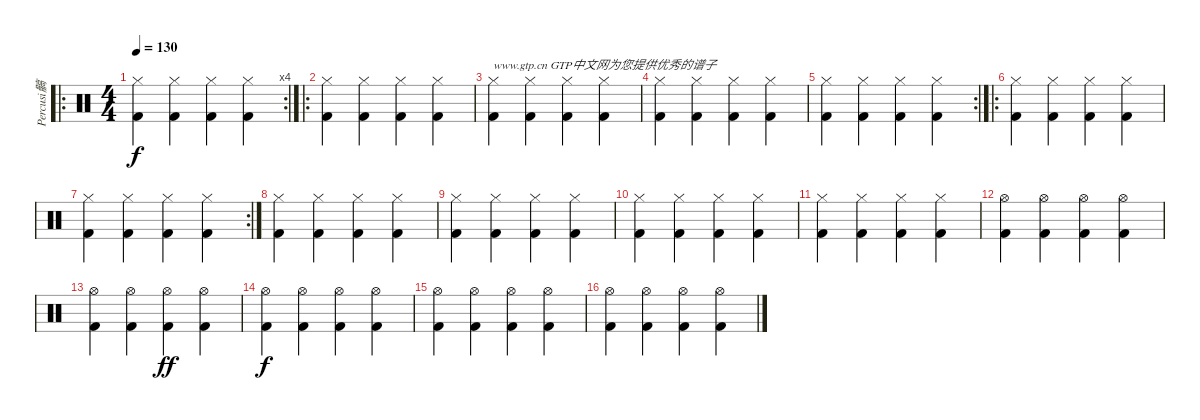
\track ("Percusi髇" "Percusi髇") {instrument percussion}
\staff {score}
\articulation defaults
\ro
\rc 4
\ts (4 4)
\tempo 130
\clef neutral
\ks c
("Hi-Hat (closed)" "Kick (hit) 2").4{dy f} ("Hi-Hat (closed)" "Kick (hit) 2").4 ("Hi-Hat (closed)" "Kick (hit) 2").4 ("Hi-Hat (closed)" "Kick (hit) 2").4 |
\ro
("Hi-Hat (closed)" "Kick (hit) 2").4 ("Hi-Hat (closed)" "Kick (hit) 2").4 ("Hi-Hat (closed)" "Kick (hit) 2").4 ("Hi-Hat (closed)" "Kick (hit) 2").4 |
("Hi-Hat (closed)" "Kick (hit) 2").4{txt "www.gtp.cn GTP中文网为您提供优秀的谱子"} ("Hi-Hat (closed)" "Kick (hit) 2").4 ("Hi-Hat (closed)" "Kick (hit) 2").4 ("Hi-Hat (closed)" "Kick (hit) 2").4 |
("Hi-Hat (closed)" "Kick (hit) 2").4 ("Hi-Hat (closed)" "Kick (hit) 2").4 ("Hi-Hat (closed)" "Kick (hit) 2").4 ("Hi-Hat (closed)" "Kick (hit) 2").4 |
\rc 2
("Hi-Hat (closed)" "Kick (hit) 2").4 ("Hi-Hat (closed)" "Kick (hit) 2").4 ("Hi-Hat (closed)" "Kick (hit) 2").4 ("Hi-Hat (closed)" "Kick (hit) 2").4 |
\ro
("Hi-Hat (closed)" "Kick (hit) 2").4 ("Hi-Hat (closed)" "Kick (hit) 2").4 ("Hi-Hat (closed)" "Kick (hit) 2").4 ("Hi-Hat (closed)" "Kick (hit) 2").4 |
\rc 2
("Hi-Hat (closed)" "Kick (hit) 2").4 ("Hi-Hat (closed)" "Kick (hit) 2").4 ("Hi-Hat (closed)" "Kick (hit) 2").4 ("Hi-Hat (closed)" "Kick (hit) 2").4 |
("Hi-Hat (closed)" "Kick (hit) 2").4 ("Hi-Hat (closed)" "Kick (hit) 2").4 ("Hi-Hat (closed)" "Kick (hit) 2").4 ("Hi-Hat (closed)" "Kick (hit) 2").4 |
("Hi-Hat (closed)" "Kick (hit) 2").4 ("Hi-Hat (closed)" "Kick (hit) 2").4 ("Hi-Hat (closed)" "Kick (hit) 2").4 ("Hi-Hat (closed)" "Kick (hit) 2").4 |
("Hi-Hat (closed)" "Kick (hit) 2").4 ("Hi-Hat (closed)" "Kick (hit) 2").4 ("Hi-Hat (closed)" "Kick (hit) 2").4 ("Hi-Hat (closed)" "Kick (hit) 2").4 |
("Hi-Hat (closed)" "Kick (hit) 2").4 ("Hi-Hat (closed)" "Kick (hit) 2").4 ("Hi-Hat (closed)" "Kick (hit) 2").4 ("Hi-Hat (closed)" "Kick (hit) 2").4 |
("Hi-Hat (open)" "Kick (hit) 2").4 ("Hi-Hat (open)" "Kick (hit) 2").4 ("Hi-Hat (open)" "Kick (hit) 2").4 ("Hi-Hat (open)" "Kick (hit) 2").4 |
("Hi-Hat (open)" "Kick (hit) 2").4 ("Hi-Hat (open)" "Kick (hit) 2").4 ("Hi-Hat (open)" "Kick (hit) 2").4{dy ff} ("Hi-Hat (open)" "Kick (hit) 2").4 |
("Hi-Hat (open)" "Kick (hit) 2").4{dy f} ("Hi-Hat (open)" "Kick (hit) 2").4 ("Hi-Hat (open)" "Kick (hit) 2").4 ("Hi-Hat (open)" "Kick (hit) 2").4 |
("Hi-Hat (open)" "Kick (hit) 2").4 ("Hi-Hat (open)" "Kick (hit) 2").4 ("Hi-Hat (open)" "Kick (hit) 2").4 ("Hi-Hat (open)" "Kick (hit) 2").4 |
("Hi-Hat (open)" "Kick (hit) 2").4 ("Hi-Hat (open)" "Kick (hit) 2").4 ("Hi-Hat (open)" "Kick (hit) 2").4 ("Hi-Hat (open)" "Kick (hit) 2").4
